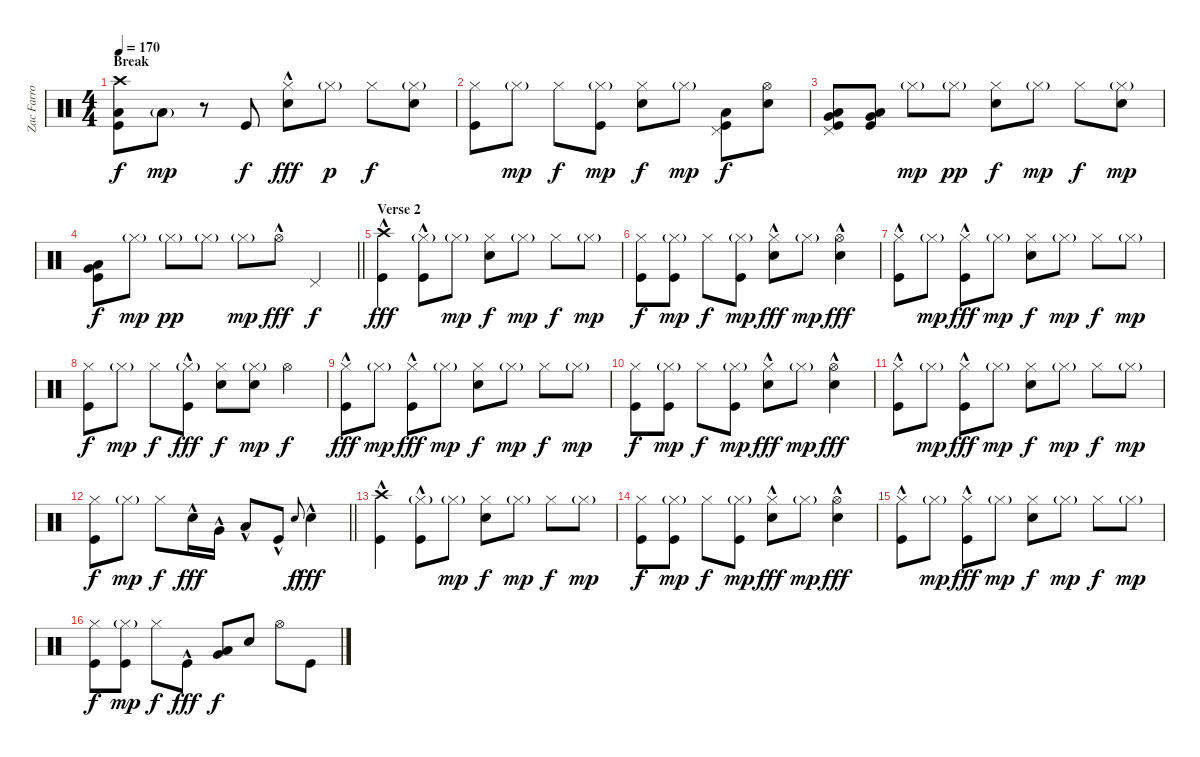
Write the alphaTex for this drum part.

\track ("Zac Farro (Drums)" "Zac Farro ") {instrument percussion}
\staff {score}
\articulation defaults
\ts (4 4)
\section ("" "Break")
\tempo 170
\clef neutral
\ks c
("Crash high (hit)" "Low Floor Tom (hit)" "Kick (hit)").8{dy f} "Low Floor Tom (hit)"{g}.8{dy mp} r.8 "Kick (hit)".8{dy f} ("Hi-Hat (closed)"{hac} "Electric Snare (hit)").8{dy fff} "Hi-Hat (closed)"{g}.8{dy p} "Hi-Hat (closed)".8{dy f} ("Hi-Hat (closed)"{g} "Electric Snare (hit)").8 |
("Hi-Hat (closed)" "Kick (hit)").8 "Hi-Hat (closed)"{g}.8{dy mp} "Hi-Hat (closed)".8{dy f} ("Hi-Hat (closed)"{g} "Kick (hit)").8{dy mp} ("Hi-Hat (closed)" "Electric Snare (hit)").8{dy f} "Hi-Hat (closed)"{g}.8{dy mp} ("Low Floor Tom (hit)" "Pedal Hi-Hat (hit)" "Kick (hit)").8{dy f} ("Hi-Hat (open)" "Electric Snare (hit)").8 |
("Very Low Tom (hit)" "Low Floor Tom (hit)" "Pedal Hi-Hat (hit)" "Kick (hit)").8 ("Very Low Tom (hit)" "Low Floor Tom (hit)" "Kick (hit)").8 "Hi-Hat (closed)"{g}.8{dy mp} "Hi-Hat (closed)"{g}.8{dy pp} ("Hi-Hat (closed)" "Electric Snare (hit)").8{dy f} "Hi-Hat (closed)"{g}.8{dy mp} "Hi-Hat (closed)".8{dy f} ("Hi-Hat (closed)"{g} "Electric Snare (hit)").8{dy mp} |
\barLineRight lightlight
("Very Low Tom (hit)" "Low Floor Tom (hit)" "Kick (hit)").8{dy f} "Hi-Hat (closed)"{g}.8{dy mp} "Hi-Hat (closed)"{g}.8{dy pp} "Hi-Hat (closed)"{g}.8 "Hi-Hat (closed)"{g}.8{dy mp} "Hi-Hat (open)"{hac}.8{dy fff} "Pedal Hi-Hat (hit)".4{dy f} |
\section ("" "Verse 2")
("Crash high (hit)"{hac} "Kick (hit)"{hac}).4{dy fff} ("Hi-Hat (closed)"{g} "Kick (hit)"{hac}).8 "Hi-Hat (closed)"{g}.8{dy mp} ("Hi-Hat (closed)" "Electric Snare (hit)").8{dy f} "Hi-Hat (closed)"{g}.8{dy mp} "Hi-Hat (closed)".8{dy f} "Hi-Hat (closed)"{g}.8{dy mp} |
("Hi-Hat (closed)" "Kick (hit)").8{dy f} ("Hi-Hat (closed)"{g} "Kick (hit)").8{dy mp} "Hi-Hat (closed)".8{dy f} ("Hi-Hat (closed)"{g} "Kick (hit)").8{dy mp} ("Hi-Hat (closed)" "Electric Snare (hit)"{hac}).8{dy fff} "Hi-Hat (closed)"{g}.8{dy mp} ("Hi-Hat (open)"{hac} "Electric Snare (hit)"{hac}).4{dy fff} |
("Hi-Hat (closed)" "Kick (hit)"{hac}).8 "Hi-Hat (closed)"{g}.8{dy mp} ("Hi-Hat (closed)" "Kick (hit)"{hac}).8{dy fff} "Hi-Hat (closed)"{g}.8{dy mp} ("Hi-Hat (closed)" "Electric Snare (hit)").8{dy f} "Hi-Hat (closed)"{g}.8{dy mp} "Hi-Hat (closed)".8{dy f} "Hi-Hat (closed)"{g}.8{dy mp} |
("Hi-Hat (closed)" "Kick (hit)").8{dy f} "Hi-Hat (closed)"{g}.8{dy mp} "Hi-Hat (closed)".8{dy f} ("Hi-Hat (closed)"{g} "Kick (hit)"{hac}).8{dy fff} ("Hi-Hat (closed)" "Electric Snare (hit)").8{dy f} ("Hi-Hat (closed)"{g} "Electric Snare (hit)").8{dy mp} "Hi-Hat (open)".4{dy f} |
("Hi-Hat (closed)" "Kick (hit)"{hac}).8{dy fff} "Hi-Hat (closed)"{g}.8{dy mp} ("Hi-Hat (closed)" "Kick (hit)"{hac}).8{dy fff} "Hi-Hat (closed)"{g}.8{dy mp} ("Hi-Hat (closed)" "Electric Snare (hit)").8{dy f} "Hi-Hat (closed)"{g}.8{dy mp} "Hi-Hat (closed)".8{dy f} "Hi-Hat (closed)"{g}.8{dy mp} |
("Hi-Hat (closed)" "Kick (hit)").8{dy f} ("Hi-Hat (closed)"{g} "Kick (hit)").8{dy mp} "Hi-Hat (closed)".8{dy f} ("Hi-Hat (closed)"{g} "Kick (hit)").8{dy mp} ("Hi-Hat (closed)" "Electric Snare (hit)"{hac}).8{dy fff} "Hi-Hat (closed)"{g}.8{dy mp} ("Hi-Hat (open)"{hac} "Electric Snare (hit)"{hac}).4{dy fff} |
("Hi-Hat (closed)" "Kick (hit)"{hac}).8 "Hi-Hat (closed)"{g}.8{dy mp} ("Hi-Hat (closed)" "Kick (hit)"{hac}).8{dy fff} "Hi-Hat (closed)"{g}.8{dy mp} ("Hi-Hat (closed)" "Electric Snare (hit)").8{dy f} "Hi-Hat (closed)"{g}.8{dy mp} "Hi-Hat (closed)".8{dy f} "Hi-Hat (closed)"{g}.8{dy mp} |
\barLineRight lightlight
("Hi-Hat (closed)" "Kick (hit)").8{dy f} "Hi-Hat (closed)"{g}.8{dy mp} "Hi-Hat (closed)".8{dy f} "Electric Snare (hit)"{hac}.16{dy fff} "Very Low Tom (hit)"{hac}.16 "Low Floor Tom (hit)"{hac}.8 "Kick (hit)"{hac}.8 "Electric Snare (hit)".8{gr onbeat dy f} "Electric Snare (hit)"{hac}.4{dy fff} |
("Crash high (hit)"{hac} "Kick (hit)"{hac}).4 ("Hi-Hat (closed)"{g} "Kick (hit)"{hac}).8 "Hi-Hat (closed)"{g}.8{dy mp} ("Hi-Hat (closed)" "Electric Snare (hit)").8{dy f} "Hi-Hat (closed)"{g}.8{dy mp} "Hi-Hat (closed)".8{dy f} "Hi-Hat (closed)"{g}.8{dy mp} |
("Hi-Hat (closed)" "Kick (hit)").8{dy f} ("Hi-Hat (closed)"{g} "Kick (hit)").8{dy mp} "Hi-Hat (closed)".8{dy f} ("Hi-Hat (closed)"{g} "Kick (hit)").8{dy mp} ("Hi-Hat (closed)" "Electric Snare (hit)"{hac}).8{dy fff} "Hi-Hat (closed)"{g}.8{dy mp} ("Hi-Hat (open)"{hac} "Electric Snare (hit)"{hac}).4{dy fff} |
("Hi-Hat (closed)" "Kick (hit)"{hac}).8 "Hi-Hat (closed)"{g}.8{dy mp} ("Hi-Hat (closed)" "Kick (hit)"{hac}).8{dy fff} "Hi-Hat (closed)"{g}.8{dy mp} ("Hi-Hat (closed)" "Electric Snare (hit)").8{dy f} "Hi-Hat (closed)"{g}.8{dy mp} "Hi-Hat (closed)".8{dy f} "Hi-Hat (closed)"{g}.8{dy mp} |
("Hi-Hat (closed)" "Kick (hit)").8{dy f} ("Hi-Hat (closed)"{g} "Kick (hit)").8{dy mp} "Hi-Hat (closed)".8{dy f} "Kick (hit)"{hac}.8{dy fff} ("Very Low Tom (hit)" "Low Floor Tom (hit)").8{dy f} "Electric Snare (hit)".8 "Hi-Hat (open)".8 "Kick (hit)".8
